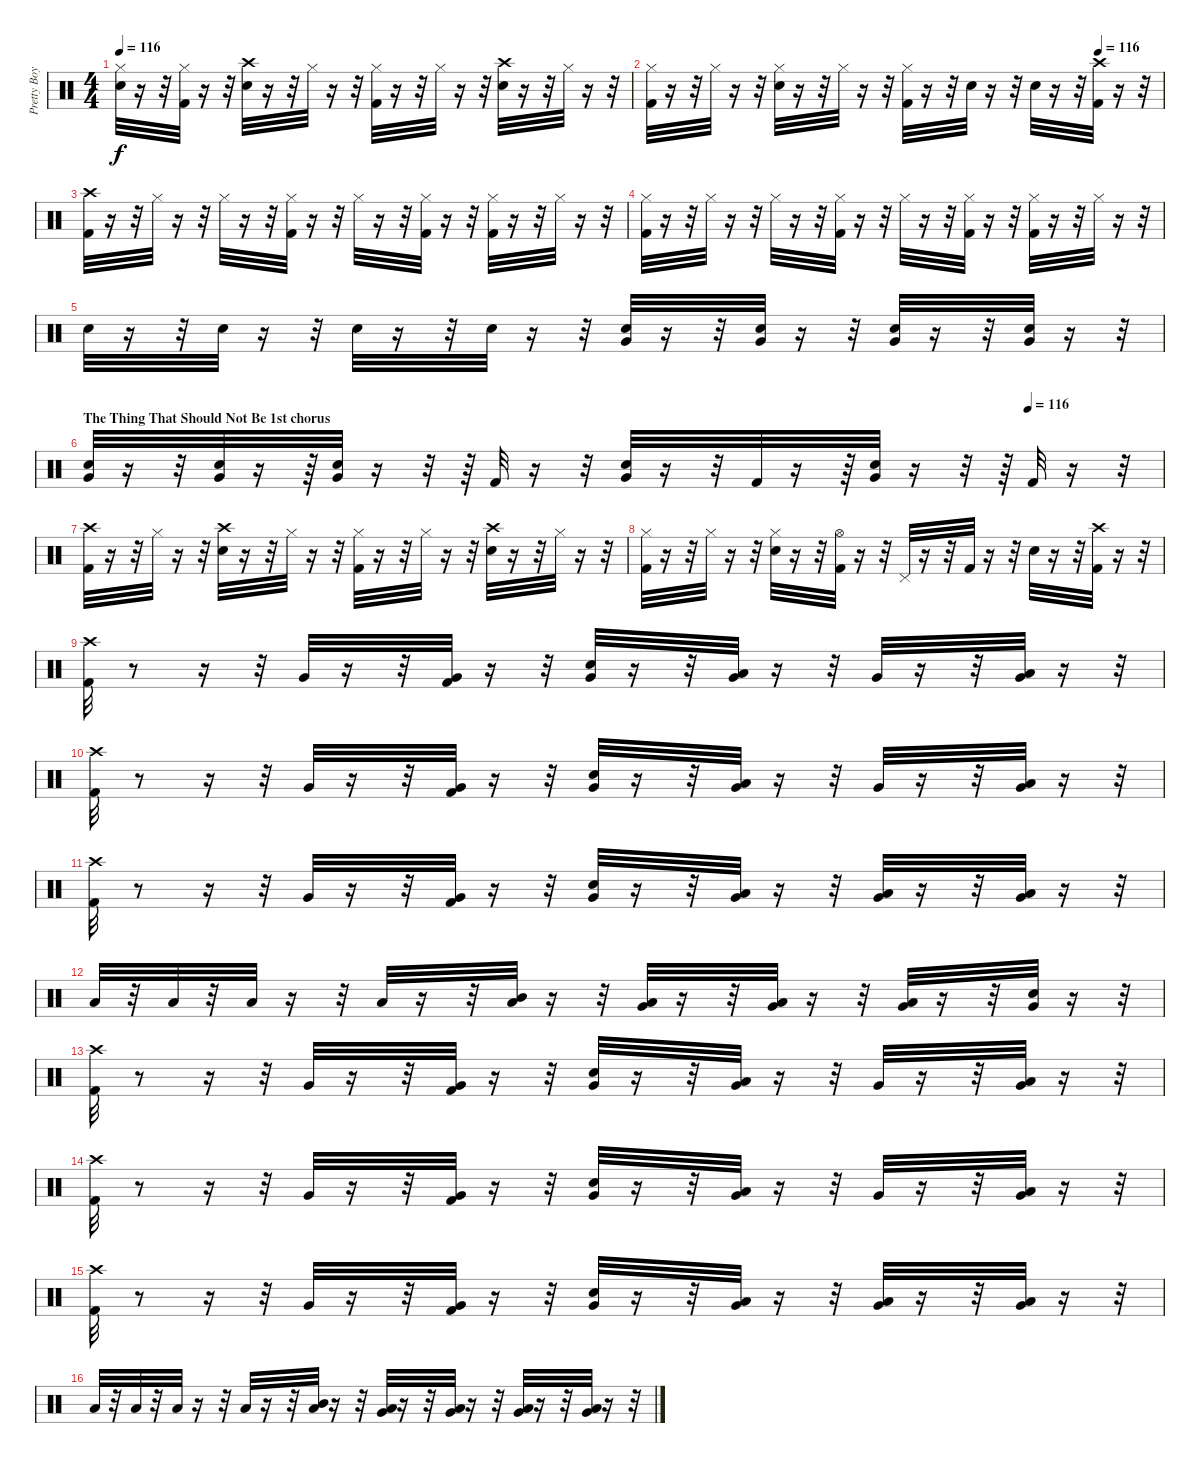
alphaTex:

\track ("Pretty Boy Geoff (Lars Drums)" "Pretty Boy") {instrument percussion}
\staff {score}
\articulation defaults
\ts (4 4)
\tempo 116
\clef neutral
\ks c
("Snare (hit) 2" "Hi-Hat (closed)").32{dy f} r.16 r.32 ("Kick (hit) 2" "Hi-Hat (closed)").32 r.16 r.32 ("Crash high (hit)" "Snare (hit) 2").32 r.16 r.32 "Hi-Hat (closed)".32 r.16 r.32 ("Kick (hit) 2" "Hi-Hat (closed)").32 r.16 r.32 "Hi-Hat (closed)".32 r.16 r.32 ("Crash high (hit)" "Snare (hit) 2").32 r.16 r.32 "Hi-Hat (closed)".32 r.16 r.32 |
\tempo (116 0.875)
("Hi-Hat (closed)" "Kick (hit) 2").32 r.16 r.32 "Hi-Hat (closed)".32 r.16 r.32 ("Snare (hit) 2" "Hi-Hat (closed)").32 r.16 r.32 "Hi-Hat (closed)".32 r.16 r.32 ("Kick (hit) 2" "Hi-Hat (closed)").32 r.16 r.32 "Snare (hit) 2".32 r.16 r.32 "Snare (hit) 2".32 r.16 r.32 ("Crash high (hit)" "Kick (hit) 2").32 r.16 r.32 |
("Kick (hit) 2" "Crash high (hit)").32 r.16 r.32 "Hi-Hat (closed)".32 r.16 r.32 "Hi-Hat (closed)".32 r.16 r.32 ("Hi-Hat (closed)" "Kick (hit) 2").32 r.16 r.32 "Hi-Hat (closed)".32 r.16 r.32 ("Hi-Hat (closed)" "Kick (hit) 2").32 r.16 r.32 ("Hi-Hat (closed)" "Kick (hit) 2").32 r.16 r.32 "Hi-Hat (closed)".32 r.16 r.32 |
("Kick (hit) 2" "Hi-Hat (closed)").32 r.16 r.32 "Hi-Hat (closed)".32 r.16 r.32 "Hi-Hat (closed)".32 r.16 r.32 ("Kick (hit) 2" "Hi-Hat (closed)").32 r.16 r.32 "Hi-Hat (closed)".32 r.16 r.32 ("Kick (hit) 2" "Hi-Hat (closed)").32 r.16 r.32 ("Kick (hit) 2" "Hi-Hat (closed)").32 r.16 r.32 "Hi-Hat (closed)".32 r.16 r.32 |
"Snare (hit) 2".32 r.16 r.32 "Snare (hit) 2".32 r.16 r.32 "Snare (hit) 2".32 r.16 r.32 "Snare (hit) 2".32 r.16 r.32 ("Very Low Tom (hit)" "Snare (hit) 2").32 r.16 r.32 ("Very Low Tom (hit)" "Snare (hit) 2").32 r.16 r.32 ("Very Low Tom (hit)" "Snare (hit) 2").32 r.16 r.32 ("Very Low Tom (hit)" "Snare (hit) 2").32 r.16 r.32 |
\section ("" "The Thing That Should Not Be 1st chorus")
\tempo (116 0.875)
("Very Low Tom (hit)" "Snare (hit) 2").32 r.16 r.32 ("Very Low Tom (hit)" "Snare (hit) 2").32 r.16 r.64 ("Very Low Tom (hit)" "Snare (hit) 2").32 r.16 r.32 r.64 "Kick (hit) 2".32 r.16 r.32 ("Snare (hit) 2" "Very Low Tom (hit)").32 r.16 r.32 "Kick (hit) 2".32 r.16 r.64 ("Snare (hit) 2" "Very Low Tom (hit)").32 r.16 r.32 r.64 "Kick (hit) 2".32 r.16 r.32 |
("Crash high (hit)" "Kick (hit) 2").32 r.16 r.32 "Hi-Hat (closed)".32 r.16 r.32 ("Snare (hit) 2" "Crash high (hit)").32 r.16 r.32 "Hi-Hat (closed)".32 r.16 r.32 ("Hi-Hat (closed)" "Kick (hit) 2").32 r.16 r.32 "Hi-Hat (closed)".32 r.16 r.32 ("Crash high (hit)" "Snare (hit) 2").32 r.16 r.32 "Hi-Hat (closed)".32 r.16 r.32 |
("Hi-Hat (closed)" "Kick (hit) 2").32 r.16 r.32 "Hi-Hat (closed)".32 r.16 r.32 ("Snare (hit) 2" "Hi-Hat (closed)").32 r.16 r.32 ("Hi-Hat (open)" "Kick (hit) 2").32 r.16 r.32 "Pedal Hi-Hat (hit)".32 r.16 r.32 "Kick (hit) 2".32 r.16 r.32 "Snare (hit) 2".32 r.16 r.32 ("Crash high (hit)" "Kick (hit) 2").32 r.16 r.32 |
("Kick (hit) 2" "Crash high (hit)").32 r.8 r.16 r.32 "Very Low Tom (hit)".32 r.16 r.32 ("Kick (hit) 2" "Very Low Tom (hit)").32 r.16 r.32 ("Snare (hit) 2" "Very Low Tom (hit)").32 r.16 r.32 ("Low Tom (hit)" "Very Low Tom (hit)").32 r.16 r.32 "Very Low Tom (hit)".32 r.16 r.32 ("Low Tom (hit)" "Very Low Tom (hit)").32 r.16 r.32 |
("Kick (hit) 2" "Crash high (hit)").32 r.8 r.16 r.32 "Very Low Tom (hit)".32 r.16 r.32 ("Kick (hit) 2" "Very Low Tom (hit)").32 r.16 r.32 ("Snare (hit) 2" "Very Low Tom (hit)").32 r.16 r.32 ("Low Tom (hit)" "Very Low Tom (hit)").32 r.16 r.32 "Very Low Tom (hit)".32 r.16 r.32 ("Low Tom (hit)" "Very Low Tom (hit)").32 r.16 r.32 |
("Kick (hit) 2" "Crash high (hit)").32 r.8 r.16 r.32 "Very Low Tom (hit)".32 r.16 r.32 ("Kick (hit) 2" "Very Low Tom (hit)").32 r.16 r.32 ("Snare (hit) 2" "Very Low Tom (hit)").32 r.16 r.32 ("Low Tom (hit)" "Very Low Tom (hit)").32 r.16 r.32 ("Low Tom (hit)" "Very Low Tom (hit)").32 r.16 r.32 ("Low Tom (hit)" "Very Low Tom (hit)").32 r.16 r.32 |
"Low Tom (hit)".32 r.32 "Low Tom (hit)".32 r.32 "Low Tom (hit)".32 r.16 r.32 "Low Tom (hit)".32 r.16 r.32 ("Mid Tom (hit)" "Low Tom (hit)").32 r.16 r.32 ("Very Low Tom (hit)" "Low Tom (hit)").32 r.16 r.32 ("Very Low Tom (hit)" "Low Tom (hit)").32 r.16 r.32 ("Very Low Tom (hit)" "Low Tom (hit)").32 r.16 r.32 ("Snare (hit) 2" "Very Low Tom (hit)").32 r.16 r.32 |
("Kick (hit) 2" "Crash high (hit)").32 r.8 r.16 r.32 "Very Low Tom (hit)".32 r.16 r.32 ("Kick (hit) 2" "Very Low Tom (hit)").32 r.16 r.32 ("Snare (hit) 2" "Very Low Tom (hit)").32 r.16 r.32 ("Low Tom (hit)" "Very Low Tom (hit)").32 r.16 r.32 "Very Low Tom (hit)".32 r.16 r.32 ("Low Tom (hit)" "Very Low Tom (hit)").32 r.16 r.32 |
("Kick (hit) 2" "Crash high (hit)").32 r.8 r.16 r.32 "Very Low Tom (hit)".32 r.16 r.32 ("Kick (hit) 2" "Very Low Tom (hit)").32 r.16 r.32 ("Snare (hit) 2" "Very Low Tom (hit)").32 r.16 r.32 ("Low Tom (hit)" "Very Low Tom (hit)").32 r.16 r.32 "Very Low Tom (hit)".32 r.16 r.32 ("Low Tom (hit)" "Very Low Tom (hit)").32 r.16 r.32 |
("Kick (hit) 2" "Crash high (hit)").32 r.8 r.16 r.32 "Very Low Tom (hit)".32 r.16 r.32 ("Kick (hit) 2" "Very Low Tom (hit)").32 r.16 r.32 ("Snare (hit) 2" "Very Low Tom (hit)").32 r.16 r.32 ("Low Tom (hit)" "Very Low Tom (hit)").32 r.16 r.32 ("Low Tom (hit)" "Very Low Tom (hit)").32 r.16 r.32 ("Low Tom (hit)" "Very Low Tom (hit)").32 r.16 r.32 |
"Low Tom (hit)".32 r.32 "Low Tom (hit)".32 r.32 "Low Tom (hit)".32 r.16 r.32 "Low Tom (hit)".32 r.16 r.32 ("Mid Tom (hit)" "Low Tom (hit)").32 r.16 r.32 ("Very Low Tom (hit)" "Low Tom (hit)").32 r.16 r.32 ("Very Low Tom (hit)" "Low Tom (hit)").32 r.16 r.32 ("Very Low Tom (hit)" "Low Tom (hit)").32 r.16 r.32 ("Low Tom (hit)" "Very Low Tom (hit)").32 r.16 r.32
